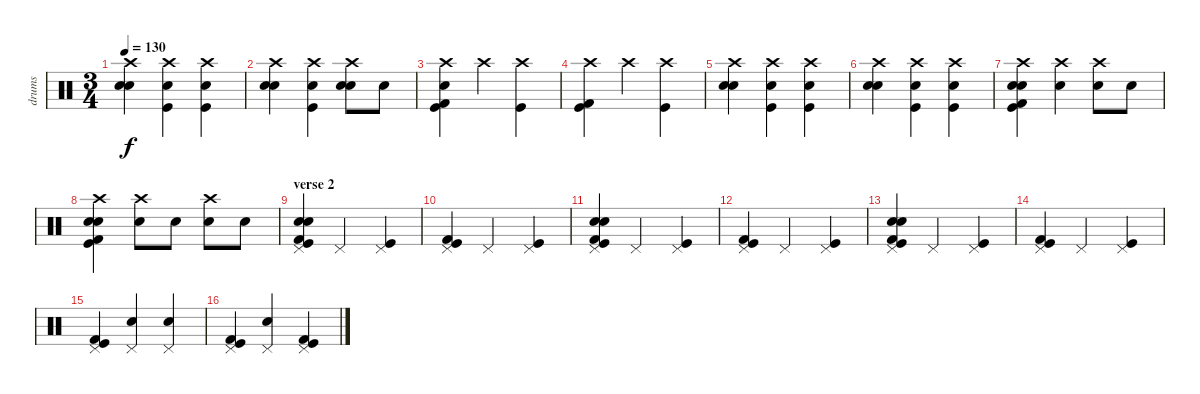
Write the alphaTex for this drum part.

\track ("drums" "drums") {instrument percussion}
\staff {score}
\articulation defaults
\ts (3 4)
\tempo 130
\clef neutral
\ks c
("Crash high (hit)" "Snare (hit) 2" "Electric Snare (hit)").4{dy f} ("Crash high (hit)" "Snare (hit) 2" "Kick (hit)").4 ("Crash high (hit)" "Snare (hit) 2" "Kick (hit)").4 |
("Crash high (hit)" "Snare (hit) 2" "Electric Snare (hit)").4 ("Crash high (hit)" "Snare (hit) 2" "Kick (hit)").4 ("Crash high (hit)" "Snare (hit) 2" "Electric Snare (hit)").8 "Snare (hit) 2".8 |
("Crash high (hit)" "Snare (hit) 2" "Kick (hit) 2" "Kick (hit)").4 "Crash high (hit)".4 ("Crash high (hit)" "Kick (hit)").4 |
("Crash high (hit)" "Kick (hit) 2" "Kick (hit)").4 "Crash high (hit)".4 ("Crash high (hit)" "Kick (hit)").4 |
("Crash high (hit)" "Snare (hit) 2" "Electric Snare (hit)").4 ("Crash high (hit)" "Snare (hit) 2" "Kick (hit)").4 ("Crash high (hit)" "Snare (hit) 2" "Kick (hit)").4 |
("Crash high (hit)" "Snare (hit) 2" "Electric Snare (hit)").4 ("Crash high (hit)" "Snare (hit) 2" "Kick (hit)").4 ("Crash high (hit)" "Snare (hit) 2" "Kick (hit)").4 |
("Crash high (hit)" "Electric Snare (hit)" "Snare (hit) 2" "Kick (hit) 2" "Kick (hit)").4 ("Crash high (hit)" "Snare (hit) 2").4 ("Crash high (hit)" "Snare (hit) 2").8 "Snare (hit) 2".8 |
("Crash high (hit)" "Electric Snare (hit)" "Snare (hit) 2" "Kick (hit) 2" "Kick (hit)").4 ("Crash high (hit)" "Electric Snare (hit)").8 "Electric Snare (hit)".8 ("Crash high (hit)" "Electric Snare (hit)").8 "Electric Snare (hit)".8 |
\section ("" "verse 2")
("Pedal Hi-Hat (hit)" "Electric Snare (hit)" "Snare (hit) 2" "Kick (hit) 2" "Kick (hit)").4 "Pedal Hi-Hat (hit)".4 ("Pedal Hi-Hat (hit)" "Kick (hit)").4 |
("Pedal Hi-Hat (hit)" "Kick (hit) 2" "Kick (hit)").4 "Pedal Hi-Hat (hit)".4 ("Pedal Hi-Hat (hit)" "Kick (hit)").4 |
("Pedal Hi-Hat (hit)" "Electric Snare (hit)" "Snare (hit) 2" "Kick (hit) 2" "Kick (hit)").4 "Pedal Hi-Hat (hit)".4 ("Pedal Hi-Hat (hit)" "Kick (hit)").4 |
("Pedal Hi-Hat (hit)" "Kick (hit) 2" "Kick (hit)").4 "Pedal Hi-Hat (hit)".4 ("Pedal Hi-Hat (hit)" "Kick (hit)").4 |
("Pedal Hi-Hat (hit)" "Electric Snare (hit)" "Snare (hit) 2" "Kick (hit) 2" "Kick (hit)").4 "Pedal Hi-Hat (hit)".4 ("Pedal Hi-Hat (hit)" "Kick (hit)").4 |
("Pedal Hi-Hat (hit)" "Kick (hit) 2" "Kick (hit)").4 "Pedal Hi-Hat (hit)".4 ("Pedal Hi-Hat (hit)" "Kick (hit)").4 |
("Pedal Hi-Hat (hit)" "Kick (hit) 2" "Kick (hit)").4 ("Pedal Hi-Hat (hit)" "Snare (hit) 2").4 ("Pedal Hi-Hat (hit)" "Snare (hit) 2").4 |
("Pedal Hi-Hat (hit)" "Kick (hit) 2" "Kick (hit)").4 ("Pedal Hi-Hat (hit)" "Snare (hit) 2").4 ("Pedal Hi-Hat (hit)" "Kick (hit) 2" "Kick (hit)").4
